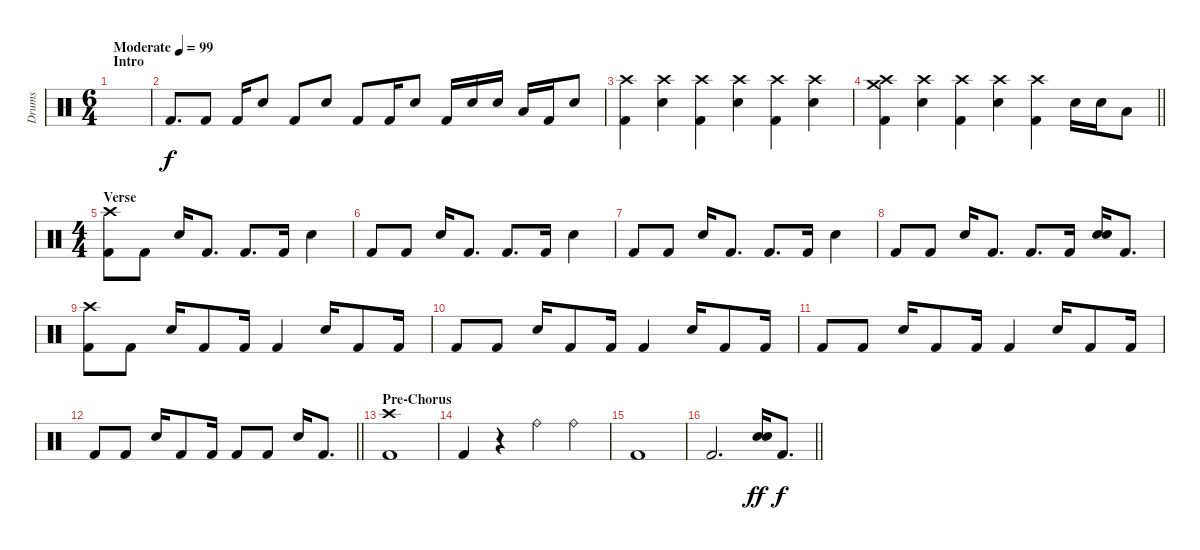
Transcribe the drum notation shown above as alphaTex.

\track ("Drums" "Drums") {instrument percussion}
\staff {score}
\articulation defaults
\ts (6 4)
\section ("" "Intro")
\tempo (99 "Moderate")
\clef neutral
\ks c
|
"Kick (hit) 2".8{d} "Kick (hit) 2".8 "Kick (hit) 2".16 "Electric Snare (hit)".8 "Kick (hit) 2".8 "Electric Snare (hit)".8 "Kick (hit) 2".8 "Kick (hit) 2".16 "Electric Snare (hit)".8 "Kick (hit) 2".16 "Electric Snare (hit)".16 "Electric Snare (hit)".16 "Low Floor Tom (hit)".16 "Kick (hit) 2".16 "Electric Snare (hit)".8 |
("Crash high (hit)" "Kick (hit) 2").4 ("Crash high (hit)" "Electric Snare (hit)").4 ("Crash high (hit)" "Kick (hit) 2").4 ("Crash high (hit)" "Electric Snare (hit)").4 ("Crash high (hit)" "Kick (hit) 2").4 ("Crash high (hit)" "Electric Snare (hit)").4 |
\barLineRight lightlight
("Crash medium (hit)" "Crash high (hit)" "Kick (hit) 2").4 ("Crash high (hit)" "Electric Snare (hit)").4 ("Crash high (hit)" "Kick (hit) 2").4 ("Crash high (hit)" "Electric Snare (hit)").4 ("Crash high (hit)" "Kick (hit) 2").4 "Electric Snare (hit)".16 "Electric Snare (hit)".16 "Low Floor Tom (hit)".8 |
\ts (4 4)
\section ("" "Verse")
("Crash high (hit)" "Kick (hit) 2").8 "Kick (hit) 2".8 "Electric Snare (hit)".16 "Kick (hit) 2".8{d} "Kick (hit) 2".8{d} "Kick (hit) 2".16 "Electric Snare (hit)".4 |
"Kick (hit) 2".8 "Kick (hit) 2".8 "Electric Snare (hit)".16 "Kick (hit) 2".8{d} "Kick (hit) 2".8{d} "Kick (hit) 2".16 "Electric Snare (hit)".4 |
"Kick (hit) 2".8 "Kick (hit) 2".8 "Electric Snare (hit)".16 "Kick (hit) 2".8{d} "Kick (hit) 2".8{d} "Kick (hit) 2".16 "Electric Snare (hit)".4 |
"Kick (hit) 2".8 "Kick (hit) 2".8 "Electric Snare (hit)".16 "Kick (hit) 2".8{d} "Kick (hit) 2".8{d} "Kick (hit) 2".16 ("Snare (hit) 2" "Electric Snare (hit)").16 "Kick (hit) 2".8{d} |
("Crash high (hit)" "Kick (hit) 2").8 "Kick (hit) 2".8 "Electric Snare (hit)".16 "Kick (hit) 2".8 "Kick (hit) 2".16 "Kick (hit) 2".4 "Electric Snare (hit)".16 "Kick (hit) 2".8 "Kick (hit) 2".16 |
"Kick (hit) 2".8 "Kick (hit) 2".8 "Electric Snare (hit)".16 "Kick (hit) 2".8 "Kick (hit) 2".16 "Kick (hit) 2".4 "Electric Snare (hit)".16 "Kick (hit) 2".8 "Kick (hit) 2".16 |
"Kick (hit) 2".8 "Kick (hit) 2".8 "Electric Snare (hit)".16 "Kick (hit) 2".8 "Kick (hit) 2".16 "Kick (hit) 2".4 "Electric Snare (hit)".16 "Kick (hit) 2".8 "Kick (hit) 2".16 |
\barLineRight lightlight "Kick (hit) 2".8 "Kick (hit) 2".8 "Electric Snare (hit)".16 "Kick (hit) 2".8 "Kick (hit) 2".16 "Kick (hit) 2".8 "Kick (hit) 2".8 "Electric Snare (hit)".16 "Kick (hit) 2".8{d}
|
\section ("" "Pre-Chorus")
("Crash high (hit)" "Kick (hit) 2").1 |
"Kick (hit) 2".4 r.4 "Ride (bell)".4 "Ride (bell)".4 |
"Kick (hit) 2".1 |
\barLineRight lightlight "Kick (hit) 2".2{d}
("Snare (hit) 2" "Electric Snare (hit)").16{dy ff} "Kick (hit) 2".8{d dy f}
